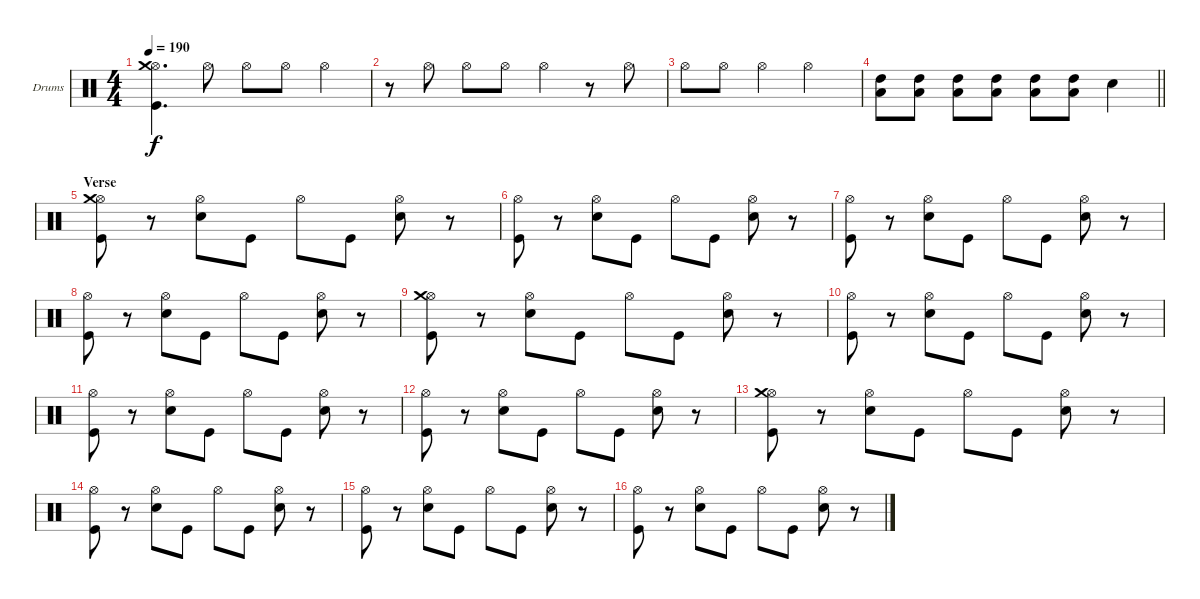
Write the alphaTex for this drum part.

\bracketExtendMode groupsimilarinstruments
\firstSystemTrackNameOrientation horizontal
\otherSystemsTrackNameOrientation horizontal
\track ("Drumkit" "Drums") {instrument percussion}
\staff {score}
\articulation defaults
\ts (4 4)
\tempo 190
\clef neutral
\ks c
("Hi-Hat (open)" "Kick (hit)" "Crash medium (hit)").4{d dy f} "Hi-Hat (open)".8 "Hi-Hat (open)".8 "Hi-Hat (open)".8 "Hi-Hat (open)".4 |
r.8 "Hi-Hat (open)".8 "Hi-Hat (open)".8 "Hi-Hat (open)".8 "Hi-Hat (open)".4 r.8 "Hi-Hat (open)".8 |
"Hi-Hat (open)".8 "Hi-Hat (open)".8 "Hi-Hat (open)".4 "Hi-Hat (open)".2 |
\barLineRight lightlight
("High Tom (hit)" "Low Tom (hit)").8 ("High Tom (hit)" "Low Tom (hit)").8 ("High Tom (hit)" "Low Tom (hit)").8 ("High Tom (hit)" "Low Tom (hit)").8 ("High Tom (hit)" "Low Tom (hit)").8 ("High Tom (hit)" "Low Tom (hit)").8 "Snare (hit) 2".4 |
\section ("" "Verse")
("Hi-Hat (open)" "Crash medium (hit)" "Kick (hit)").8 r.8 ("Hi-Hat (open)" "Snare (hit) 2").8 "Kick (hit)".8 "Hi-Hat (open)".8 "Kick (hit)".8 ("Hi-Hat (open)" "Snare (hit) 2").8 r.8 |
("Hi-Hat (open)" "Kick (hit)").8 r.8 ("Hi-Hat (open)" "Snare (hit) 2").8 "Kick (hit)".8 "Hi-Hat (open)".8 "Kick (hit)".8 ("Hi-Hat (open)" "Snare (hit) 2").8 r.8 |
("Hi-Hat (open)" "Kick (hit)").8 r.8 ("Hi-Hat (open)" "Snare (hit) 2").8 "Kick (hit)".8 "Hi-Hat (open)".8 "Kick (hit)".8 ("Hi-Hat (open)" "Snare (hit) 2").8 r.8 |
("Hi-Hat (open)" "Kick (hit)").8 r.8 ("Hi-Hat (open)" "Snare (hit) 2").8 "Kick (hit)".8 "Hi-Hat (open)".8 "Kick (hit)".8 ("Hi-Hat (open)" "Snare (hit) 2").8 r.8 |
("Hi-Hat (open)" "Crash medium (hit)" "Kick (hit)").8 r.8 ("Hi-Hat (open)" "Snare (hit) 2").8 "Kick (hit)".8 "Hi-Hat (open)".8 "Kick (hit)".8 ("Hi-Hat (open)" "Snare (hit) 2").8 r.8 |
("Hi-Hat (open)" "Kick (hit)").8 r.8 ("Hi-Hat (open)" "Snare (hit) 2").8 "Kick (hit)".8 "Hi-Hat (open)".8 "Kick (hit)".8 ("Hi-Hat (open)" "Snare (hit) 2").8 r.8 |
("Hi-Hat (open)" "Kick (hit)").8 r.8 ("Hi-Hat (open)" "Snare (hit) 2").8 "Kick (hit)".8 "Hi-Hat (open)".8 "Kick (hit)".8 ("Hi-Hat (open)" "Snare (hit) 2").8 r.8 |
("Hi-Hat (open)" "Kick (hit)").8 r.8 ("Hi-Hat (open)" "Snare (hit) 2").8 "Kick (hit)".8 "Hi-Hat (open)".8 "Kick (hit)".8 ("Hi-Hat (open)" "Snare (hit) 2").8 r.8 |
("Hi-Hat (open)" "Crash medium (hit)" "Kick (hit)").8 r.8 ("Hi-Hat (open)" "Snare (hit) 2").8 "Kick (hit)".8 "Hi-Hat (open)".8 "Kick (hit)".8 ("Hi-Hat (open)" "Snare (hit) 2").8 r.8 |
("Hi-Hat (open)" "Kick (hit)").8 r.8 ("Hi-Hat (open)" "Snare (hit) 2").8 "Kick (hit)".8 "Hi-Hat (open)".8 "Kick (hit)".8 ("Hi-Hat (open)" "Snare (hit) 2").8 r.8 |
("Hi-Hat (open)" "Kick (hit)").8 r.8 ("Hi-Hat (open)" "Snare (hit) 2").8 "Kick (hit)".8 "Hi-Hat (open)".8 "Kick (hit)".8 ("Hi-Hat (open)" "Snare (hit) 2").8 r.8 |
("Hi-Hat (open)" "Kick (hit)").8 r.8 ("Hi-Hat (open)" "Snare (hit) 2").8 "Kick (hit)".8 "Hi-Hat (open)".8 "Kick (hit)".8 ("Hi-Hat (open)" "Snare (hit) 2").8 r.8
